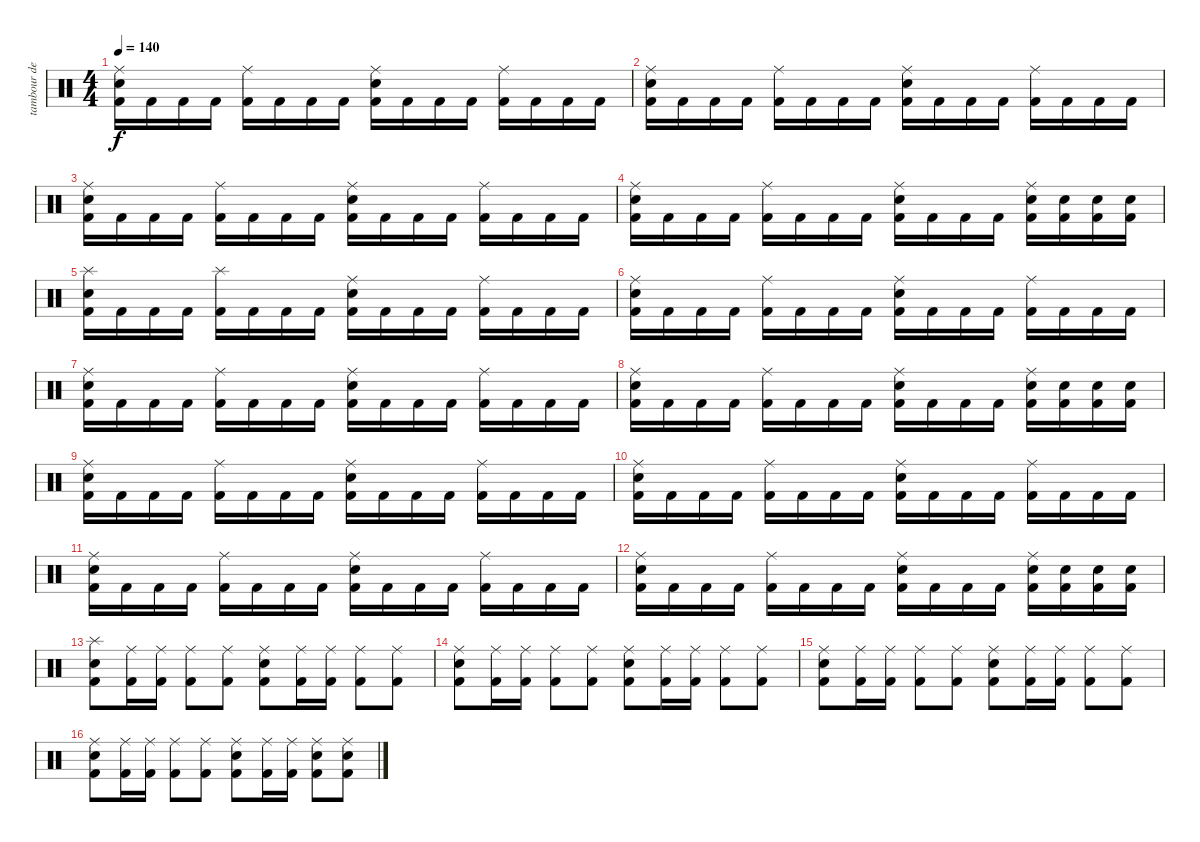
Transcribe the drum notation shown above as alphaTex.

\track ("tambour de guerre" "tambour de") {instrument percussion}
\staff {score}
\articulation defaults
\ts (4 4)
\tempo 140
\clef neutral
\ks c
("Kick (hit) 2" "Snare (hit) 2" "Ride (middle)").16{dy f} "Kick (hit) 2".16 "Kick (hit) 2".16 "Kick (hit) 2".16 ("Kick (hit) 2" "Ride (middle)").16 "Kick (hit) 2".16 "Kick (hit) 2".16 "Kick (hit) 2".16 ("Kick (hit) 2" "Snare (hit) 2" "Ride (middle)").16 "Kick (hit) 2".16 "Kick (hit) 2".16 "Kick (hit) 2".16 ("Kick (hit) 2" "Ride (middle)").16 "Kick (hit) 2".16 "Kick (hit) 2".16 "Kick (hit) 2".16 |
("Kick (hit) 2" "Snare (hit) 2" "Ride (middle)").16 "Kick (hit) 2".16 "Kick (hit) 2".16 "Kick (hit) 2".16 ("Kick (hit) 2" "Ride (middle)").16 "Kick (hit) 2".16 "Kick (hit) 2".16 "Kick (hit) 2".16 ("Kick (hit) 2" "Snare (hit) 2" "Ride (middle)").16 "Kick (hit) 2".16 "Kick (hit) 2".16 "Kick (hit) 2".16 ("Kick (hit) 2" "Ride (middle)").16 "Kick (hit) 2".16 "Kick (hit) 2".16 "Kick (hit) 2".16 |
("Kick (hit) 2" "Snare (hit) 2" "Ride (middle)").16 "Kick (hit) 2".16 "Kick (hit) 2".16 "Kick (hit) 2".16 ("Kick (hit) 2" "Ride (middle)").16 "Kick (hit) 2".16 "Kick (hit) 2".16 "Kick (hit) 2".16 ("Kick (hit) 2" "Snare (hit) 2" "Ride (middle)").16 "Kick (hit) 2".16 "Kick (hit) 2".16 "Kick (hit) 2".16 ("Kick (hit) 2" "Ride (middle)").16 "Kick (hit) 2".16 "Kick (hit) 2".16 "Kick (hit) 2".16 |
("Kick (hit) 2" "Snare (hit) 2" "Ride (middle)").16 "Kick (hit) 2".16 "Kick (hit) 2".16 "Kick (hit) 2".16 ("Kick (hit) 2" "Ride (middle)").16 "Kick (hit) 2".16 "Kick (hit) 2".16 "Kick (hit) 2".16 ("Kick (hit) 2" "Snare (hit) 2" "Ride (middle)").16 "Kick (hit) 2".16 "Kick (hit) 2".16 "Kick (hit) 2".16 ("Kick (hit) 2" "Snare (hit) 2" "Ride (middle)").16 ("Kick (hit) 2" "Snare (hit) 2").16 ("Kick (hit) 2" "Electric Snare (hit)").16 ("Kick (hit) 2" "Electric Snare (hit)").16 |
("Kick (hit) 2" "Snare (hit) 2" "Splash (hit)").16 "Kick (hit) 2".16 "Kick (hit) 2".16 "Kick (hit) 2".16 ("Kick (hit) 2" "Splash (hit)").16 "Kick (hit) 2".16 "Kick (hit) 2".16 "Kick (hit) 2".16 ("Kick (hit) 2" "Snare (hit) 2" "Ride (middle)").16 "Kick (hit) 2".16 "Kick (hit) 2".16 "Kick (hit) 2".16 ("Kick (hit) 2" "Ride (middle)").16 "Kick (hit) 2".16 "Kick (hit) 2".16 "Kick (hit) 2".16 |
("Kick (hit) 2" "Snare (hit) 2" "Ride (middle)").16 "Kick (hit) 2".16 "Kick (hit) 2".16 "Kick (hit) 2".16 ("Kick (hit) 2" "Ride (middle)").16 "Kick (hit) 2".16 "Kick (hit) 2".16 "Kick (hit) 2".16 ("Kick (hit) 2" "Snare (hit) 2" "Ride (middle)").16 "Kick (hit) 2".16 "Kick (hit) 2".16 "Kick (hit) 2".16 ("Kick (hit) 2" "Ride (middle)").16 "Kick (hit) 2".16 "Kick (hit) 2".16 "Kick (hit) 2".16 |
("Kick (hit) 2" "Snare (hit) 2" "Ride (middle)").16 "Kick (hit) 2".16 "Kick (hit) 2".16 "Kick (hit) 2".16 ("Kick (hit) 2" "Ride (middle)").16 "Kick (hit) 2".16 "Kick (hit) 2".16 "Kick (hit) 2".16 ("Kick (hit) 2" "Snare (hit) 2" "Ride (middle)").16 "Kick (hit) 2".16 "Kick (hit) 2".16 "Kick (hit) 2".16 ("Kick (hit) 2" "Ride (middle)").16 "Kick (hit) 2".16 "Kick (hit) 2".16 "Kick (hit) 2".16 |
("Kick (hit) 2" "Snare (hit) 2" "Ride (middle)").16 "Kick (hit) 2".16 "Kick (hit) 2".16 "Kick (hit) 2".16 ("Kick (hit) 2" "Ride (middle)").16 "Kick (hit) 2".16 "Kick (hit) 2".16 "Kick (hit) 2".16 ("Kick (hit) 2" "Snare (hit) 2" "Ride (middle)").16 "Kick (hit) 2".16 "Kick (hit) 2".16 "Kick (hit) 2".16 ("Kick (hit) 2" "Snare (hit) 2" "Ride (middle)").16 ("Kick (hit) 2" "Snare (hit) 2").16 ("Kick (hit) 2" "Electric Snare (hit)").16 ("Kick (hit) 2" "Electric Snare (hit)").16 |
("Kick (hit) 2" "Snare (hit) 2" "Ride (middle)").16 "Kick (hit) 2".16 "Kick (hit) 2".16 "Kick (hit) 2".16 ("Kick (hit) 2" "Ride (middle)").16 "Kick (hit) 2".16 "Kick (hit) 2".16 "Kick (hit) 2".16 ("Kick (hit) 2" "Snare (hit) 2" "Ride (middle)").16 "Kick (hit) 2".16 "Kick (hit) 2".16 "Kick (hit) 2".16 ("Kick (hit) 2" "Ride (middle)").16 "Kick (hit) 2".16 "Kick (hit) 2".16 "Kick (hit) 2".16 |
("Kick (hit) 2" "Snare (hit) 2" "Ride (middle)").16 "Kick (hit) 2".16 "Kick (hit) 2".16 "Kick (hit) 2".16 ("Kick (hit) 2" "Ride (middle)").16 "Kick (hit) 2".16 "Kick (hit) 2".16 "Kick (hit) 2".16 ("Kick (hit) 2" "Snare (hit) 2" "Ride (middle)").16 "Kick (hit) 2".16 "Kick (hit) 2".16 "Kick (hit) 2".16 ("Kick (hit) 2" "Ride (middle)").16 "Kick (hit) 2".16 "Kick (hit) 2".16 "Kick (hit) 2".16 |
("Kick (hit) 2" "Snare (hit) 2" "Ride (middle)").16 "Kick (hit) 2".16 "Kick (hit) 2".16 "Kick (hit) 2".16 ("Kick (hit) 2" "Ride (middle)").16 "Kick (hit) 2".16 "Kick (hit) 2".16 "Kick (hit) 2".16 ("Kick (hit) 2" "Snare (hit) 2" "Ride (middle)").16 "Kick (hit) 2".16 "Kick (hit) 2".16 "Kick (hit) 2".16 ("Kick (hit) 2" "Ride (middle)").16 "Kick (hit) 2".16 "Kick (hit) 2".16 "Kick (hit) 2".16 |
("Kick (hit) 2" "Snare (hit) 2" "Ride (middle)").16 "Kick (hit) 2".16 "Kick (hit) 2".16 "Kick (hit) 2".16 ("Kick (hit) 2" "Ride (middle)").16 "Kick (hit) 2".16 "Kick (hit) 2".16 "Kick (hit) 2".16 ("Kick (hit) 2" "Snare (hit) 2" "Ride (middle)").16 "Kick (hit) 2".16 "Kick (hit) 2".16 "Kick (hit) 2".16 ("Kick (hit) 2" "Snare (hit) 2" "Ride (middle)").16 ("Kick (hit) 2" "Snare (hit) 2").16 ("Kick (hit) 2" "Electric Snare (hit)").16 ("Kick (hit) 2" "Electric Snare (hit)").16 |
("Kick (hit) 2" "Snare (hit) 2" "Splash (hit)").8 ("Kick (hit) 2" "Ride (middle)").16 ("Kick (hit) 2" "Ride (middle)").16 ("Kick (hit) 2" "Ride (middle)").8 ("Kick (hit) 2" "Ride (middle)").8 ("Kick (hit) 2" "Snare (hit) 2" "Ride (middle)").8 ("Kick (hit) 2" "Ride (middle)").16 ("Kick (hit) 2" "Ride (middle)").16 ("Kick (hit) 2" "Ride (middle)").8 ("Kick (hit) 2" "Ride (middle)").8 |
("Kick (hit) 2" "Snare (hit) 2" "Ride (middle)").8 ("Kick (hit) 2" "Ride (middle)").16 ("Kick (hit) 2" "Ride (middle)").16 ("Kick (hit) 2" "Ride (middle)").8 ("Kick (hit) 2" "Ride (middle)").8 ("Kick (hit) 2" "Snare (hit) 2" "Ride (middle)").8 ("Kick (hit) 2" "Ride (middle)").16 ("Kick (hit) 2" "Ride (middle)").16 ("Kick (hit) 2" "Ride (middle)").8 ("Kick (hit) 2" "Ride (middle)").8 |
("Kick (hit) 2" "Snare (hit) 2" "Ride (middle)").8 ("Kick (hit) 2" "Ride (middle)").16 ("Kick (hit) 2" "Ride (middle)").16 ("Kick (hit) 2" "Ride (middle)").8 ("Kick (hit) 2" "Ride (middle)").8 ("Kick (hit) 2" "Snare (hit) 2" "Ride (middle)").8 ("Kick (hit) 2" "Ride (middle)").16 ("Kick (hit) 2" "Ride (middle)").16 ("Kick (hit) 2" "Ride (middle)").8 ("Kick (hit) 2" "Ride (middle)").8 |
("Kick (hit) 2" "Snare (hit) 2" "Ride (middle)").8 ("Kick (hit) 2" "Ride (middle)").16 ("Kick (hit) 2" "Ride (middle)").16 ("Kick (hit) 2" "Ride (middle)").8 ("Kick (hit) 2" "Ride (middle)").8 ("Kick (hit) 2" "Snare (hit) 2" "Ride (middle)").8 ("Kick (hit) 2" "Ride (middle)").16 ("Kick (hit) 2" "Ride (middle)").16 ("Kick (hit) 2" "Snare (hit) 2" "Ride (middle)").8 ("Kick (hit) 2" "Snare (hit) 2" "Ride (middle)").8
